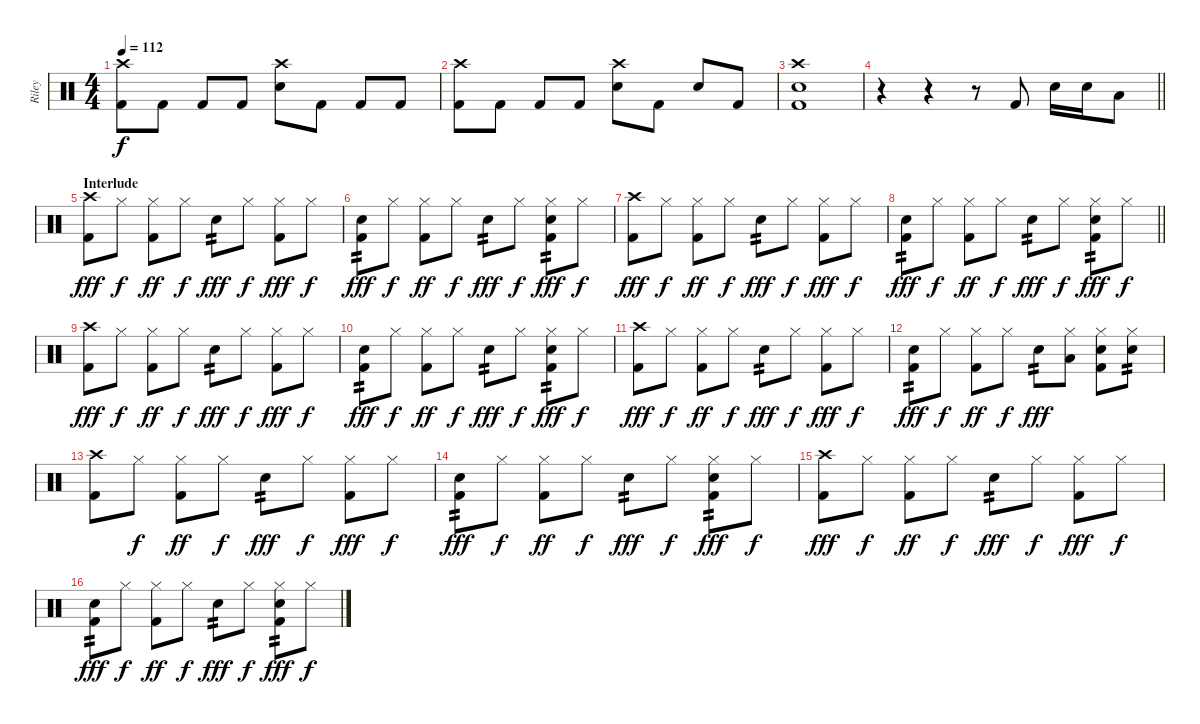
\track ("Riley" "Riley") {instrument percussion}
\staff {score}
\articulation defaults
\ts (4 4)
\tempo 112
\clef neutral
\ks c
("Crash high (hit)" "Kick (hit) 2").8{dy f} "Kick (hit) 2".8 "Kick (hit) 2".8 "Kick (hit) 2".8 ("Crash high (hit)" "Snare (hit) 2").8 "Kick (hit) 2".8 "Kick (hit) 2".8 "Kick (hit) 2".8 |
("Crash high (hit)" "Kick (hit) 2").8 "Kick (hit) 2".8 "Kick (hit) 2".8 "Kick (hit) 2".8 ("Crash high (hit)" "Snare (hit) 2").8 "Kick (hit) 2".8 "Snare (hit) 2".8 "Kick (hit) 2".8 |
("Crash high (hit)" "Snare (hit) 2" "Kick (hit) 2").1 |
\barLineRight lightlight
r.4 r.4 r.8 "Kick (hit) 2".8 "Snare (hit) 2".16 "Snare (hit) 2".16 "Low Floor Tom (hit)".8 |
\section ("" "Interlude")
("Crash high (hit)" "Kick (hit) 2").8{dy fff} "Hi-Hat (closed)".8{dy f} ("Hi-Hat (closed)" "Kick (hit) 2").8{dy ff} "Hi-Hat (closed)".8{dy f} "Snare (hit) 2".8{tp 2 dy fff} "Hi-Hat (closed)".8{dy f} ("Hi-Hat (closed)" "Kick (hit) 2").8{dy fff} "Hi-Hat (closed)".8{dy f} |
("Snare (hit) 2" "Kick (hit) 2").8{tp 2 dy fff} "Hi-Hat (closed)".8{dy f} ("Hi-Hat (closed)" "Kick (hit) 2").8{dy ff} "Hi-Hat (closed)".8{dy f} "Snare (hit) 2".8{tp 2 dy fff} "Hi-Hat (closed)".8{dy f} ("Hi-Hat (closed)" "Snare (hit) 2" "Kick (hit) 2").8{tp 2 dy fff} "Hi-Hat (closed)".8{dy f} |
("Crash high (hit)" "Kick (hit) 2").8{dy fff} "Hi-Hat (closed)".8{dy f} ("Hi-Hat (closed)" "Kick (hit) 2").8{dy ff} "Hi-Hat (closed)".8{dy f} "Snare (hit) 2".8{tp 2 dy fff} "Hi-Hat (closed)".8{dy f} ("Hi-Hat (closed)" "Kick (hit) 2").8{dy fff} "Hi-Hat (closed)".8{dy f} |
\barLineRight lightlight
("Snare (hit) 2" "Kick (hit) 2").8{tp 2 dy fff} "Hi-Hat (closed)".8{dy f} ("Hi-Hat (closed)" "Kick (hit) 2").8{dy ff} "Hi-Hat (closed)".8{dy f} "Snare (hit) 2".8{tp 2 dy fff} "Hi-Hat (closed)".8{dy f} ("Hi-Hat (closed)" "Snare (hit) 2" "Kick (hit) 2").8{tp 2 dy fff} "Hi-Hat (closed)".8{dy f} |
\section ("" "")
("Crash high (hit)" "Kick (hit) 2").8{dy fff} "Hi-Hat (closed)".8{dy f} ("Hi-Hat (closed)" "Kick (hit) 2").8{dy ff} "Hi-Hat (closed)".8{dy f} "Snare (hit) 2".8{tp 2 dy fff} "Hi-Hat (closed)".8{dy f} ("Hi-Hat (closed)" "Kick (hit) 2").8{dy fff} "Hi-Hat (closed)".8{dy f} |
("Snare (hit) 2" "Kick (hit) 2").8{tp 2 dy fff} "Hi-Hat (closed)".8{dy f} ("Hi-Hat (closed)" "Kick (hit) 2").8{dy ff} "Hi-Hat (closed)".8{dy f} "Snare (hit) 2".8{tp 2 dy fff} "Hi-Hat (closed)".8{dy f} ("Hi-Hat (closed)" "Snare (hit) 2" "Kick (hit) 2").8{tp 2 dy fff} "Hi-Hat (closed)".8{dy f} |
("Crash high (hit)" "Kick (hit) 2").8{dy fff} "Hi-Hat (closed)".8{dy f} ("Hi-Hat (closed)" "Kick (hit) 2").8{dy ff} "Hi-Hat (closed)".8{dy f} "Snare (hit) 2".8{tp 2 dy fff} "Hi-Hat (closed)".8{dy f} ("Hi-Hat (closed)" "Kick (hit) 2").8{dy fff} "Hi-Hat (closed)".8{dy f} |
("Snare (hit) 2" "Kick (hit) 2").8{tp 2 dy fff} "Hi-Hat (closed)".8{dy f} ("Hi-Hat (closed)" "Kick (hit) 2").8{dy ff} "Hi-Hat (closed)".8{dy f} "Snare (hit) 2".8{tp 2 dy fff} ("Hi-Hat (closed)" "Low Floor Tom (hit)").8 ("Hi-Hat (closed)" "Snare (hit) 2" "Kick (hit) 2").8 ("Hi-Hat (closed)" "Snare (hit) 2").8{tp 2} |
("Crash high (hit)" "Kick (hit) 2").8 "Hi-Hat (closed)".8{dy f} ("Hi-Hat (closed)" "Kick (hit) 2").8{dy ff} "Hi-Hat (closed)".8{dy f} "Snare (hit) 2".8{tp 2 dy fff} "Hi-Hat (closed)".8{dy f} ("Hi-Hat (closed)" "Kick (hit) 2").8{dy fff} "Hi-Hat (closed)".8{dy f} |
("Snare (hit) 2" "Kick (hit) 2").8{tp 2 dy fff} "Hi-Hat (closed)".8{dy f} ("Hi-Hat (closed)" "Kick (hit) 2").8{dy ff} "Hi-Hat (closed)".8{dy f} "Snare (hit) 2".8{tp 2 dy fff} "Hi-Hat (closed)".8{dy f} ("Hi-Hat (closed)" "Snare (hit) 2" "Kick (hit) 2").8{tp 2 dy fff} "Hi-Hat (closed)".8{dy f} |
("Crash high (hit)" "Kick (hit) 2").8{dy fff} "Hi-Hat (closed)".8{dy f} ("Hi-Hat (closed)" "Kick (hit) 2").8{dy ff} "Hi-Hat (closed)".8{dy f} "Snare (hit) 2".8{tp 2 dy fff} "Hi-Hat (closed)".8{dy f} ("Hi-Hat (closed)" "Kick (hit) 2").8{dy fff} "Hi-Hat (closed)".8{dy f} |
("Snare (hit) 2" "Kick (hit) 2").8{tp 2 dy fff} "Hi-Hat (closed)".8{dy f} ("Hi-Hat (closed)" "Kick (hit) 2").8{dy ff} "Hi-Hat (closed)".8{dy f} "Snare (hit) 2".8{tp 2 dy fff} "Hi-Hat (closed)".8{dy f} ("Hi-Hat (closed)" "Snare (hit) 2" "Kick (hit) 2").8{tp 2 dy fff} "Hi-Hat (closed)".8{dy f}
